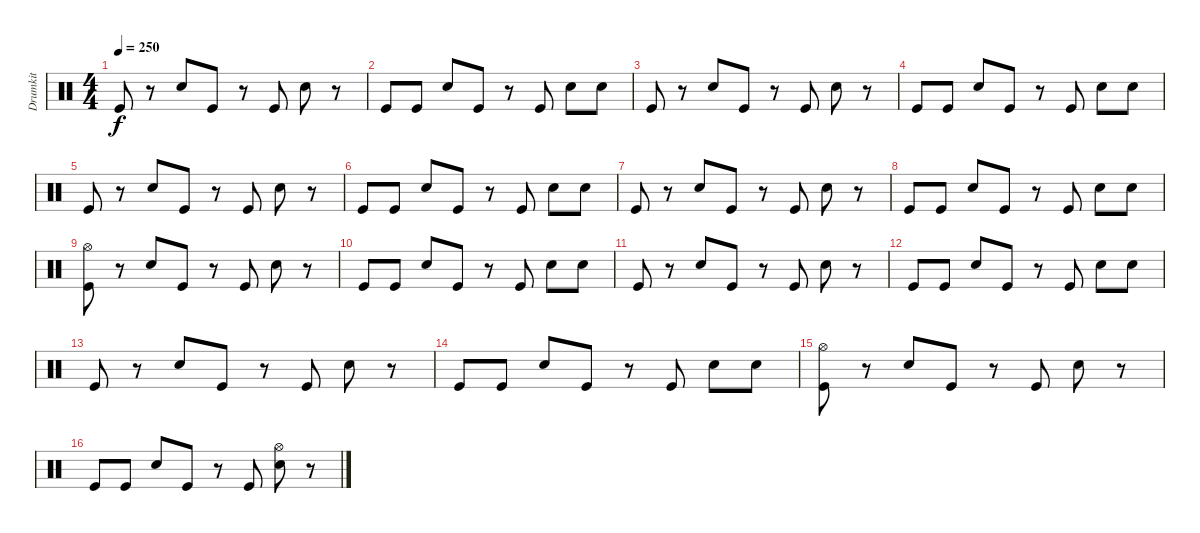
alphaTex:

\track ("Drumkit" "Drumkit") {instrument percussion}
\staff {score}
\articulation defaults
\ts (4 4)
\tempo 250
\clef neutral
\ks c "Kick (hit)".8{dy f}
r.8 "Snare (hit) 2".8 "Kick (hit)".8 r.8 "Kick (hit)".8 "Snare (hit) 2".8 r.8 |
"Kick (hit)".8 "Kick (hit)".8 "Snare (hit) 2".8 "Kick (hit)".8 r.8 "Kick (hit)".8 "Snare (hit) 2".8 "Snare (hit) 2".8 |
"Kick (hit)".8 r.8 "Snare (hit) 2".8 "Kick (hit)".8 r.8 "Kick (hit)".8 "Snare (hit) 2".8 r.8 |
"Kick (hit)".8 "Kick (hit)".8 "Snare (hit) 2".8 "Kick (hit)".8 r.8 "Kick (hit)".8 "Snare (hit) 2".8 "Snare (hit) 2".8 |
"Kick (hit)".8 r.8 "Snare (hit) 2".8 "Kick (hit)".8 r.8 "Kick (hit)".8 "Snare (hit) 2".8 r.8 |
"Kick (hit)".8 "Kick (hit)".8 "Snare (hit) 2".8 "Kick (hit)".8 r.8 "Kick (hit)".8 "Snare (hit) 2".8 "Snare (hit) 2".8 |
"Kick (hit)".8 r.8 "Snare (hit) 2".8 "Kick (hit)".8 r.8 "Kick (hit)".8 "Snare (hit) 2".8 r.8 |
"Kick (hit)".8 "Kick (hit)".8 "Snare (hit) 2".8 "Kick (hit)".8 r.8 "Kick (hit)".8 "Snare (hit) 2".8 "Snare (hit) 2".8 |
("Hi-Hat (open)" "Kick (hit)").8 r.8 "Snare (hit) 2".8 "Kick (hit)".8 r.8 "Kick (hit)".8 "Snare (hit) 2".8 r.8 |
"Kick (hit)".8 "Kick (hit)".8 "Snare (hit) 2".8 "Kick (hit)".8 r.8 "Kick (hit)".8 "Snare (hit) 2".8 "Snare (hit) 2".8 |
"Kick (hit)".8 r.8 "Snare (hit) 2".8 "Kick (hit)".8 r.8 "Kick (hit)".8 "Snare (hit) 2".8 r.8 |
"Kick (hit)".8 "Kick (hit)".8 "Snare (hit) 2".8 "Kick (hit)".8 r.8 "Kick (hit)".8 "Snare (hit) 2".8 "Snare (hit) 2".8 |
"Kick (hit)".8 r.8 "Snare (hit) 2".8 "Kick (hit)".8 r.8 "Kick (hit)".8 "Snare (hit) 2".8 r.8 |
"Kick (hit)".8 "Kick (hit)".8 "Snare (hit) 2".8 "Kick (hit)".8 r.8 "Kick (hit)".8 "Snare (hit) 2".8 "Snare (hit) 2".8 |
("Hi-Hat (open)" "Kick (hit)").8 r.8 "Snare (hit) 2".8 "Kick (hit)".8 r.8 "Kick (hit)".8 "Snare (hit) 2".8 r.8 |
"Kick (hit)".8 "Kick (hit)".8 "Snare (hit) 2".8 "Kick (hit)".8 r.8 "Kick (hit)".8 ("Hi-Hat (open)" "Snare (hit) 2").8 r.8
